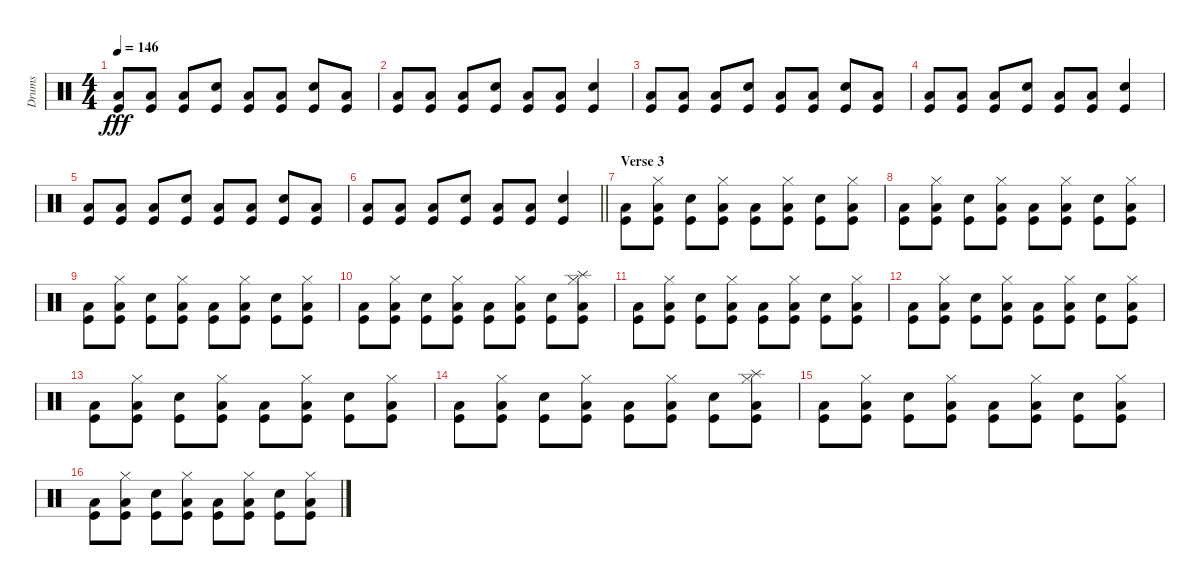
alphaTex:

\track ("Drums" "Drums") {instrument percussion}
\staff {score}
\articulation defaults
\ts (4 4)
\tempo 146
\clef neutral
\ks c
("Low Floor Tom (hit)" "Kick (hit)").8{dy fff} ("Low Floor Tom (hit)" "Kick (hit)").8 ("Low Floor Tom (hit)" "Kick (hit)").8 ("Electric Snare (hit)" "Kick (hit)").8 ("Low Floor Tom (hit)" "Kick (hit)").8 ("Low Floor Tom (hit)" "Kick (hit)").8 ("Electric Snare (hit)" "Kick (hit)").8 ("Low Floor Tom (hit)" "Kick (hit)").8 |
("Low Floor Tom (hit)" "Kick (hit)").8 ("Low Floor Tom (hit)" "Kick (hit)").8 ("Low Floor Tom (hit)" "Kick (hit)").8 ("Electric Snare (hit)" "Kick (hit)").8 ("Low Floor Tom (hit)" "Kick (hit)").8 ("Low Floor Tom (hit)" "Kick (hit)").8 ("Electric Snare (hit)" "Kick (hit)").4 |
("Low Floor Tom (hit)" "Kick (hit)").8 ("Low Floor Tom (hit)" "Kick (hit)").8 ("Low Floor Tom (hit)" "Kick (hit)").8 ("Electric Snare (hit)" "Kick (hit)").8 ("Low Floor Tom (hit)" "Kick (hit)").8 ("Low Floor Tom (hit)" "Kick (hit)").8 ("Electric Snare (hit)" "Kick (hit)").8 ("Low Floor Tom (hit)" "Kick (hit)").8 |
("Low Floor Tom (hit)" "Kick (hit)").8 ("Low Floor Tom (hit)" "Kick (hit)").8 ("Low Floor Tom (hit)" "Kick (hit)").8 ("Electric Snare (hit)" "Kick (hit)").8 ("Low Floor Tom (hit)" "Kick (hit)").8 ("Low Floor Tom (hit)" "Kick (hit)").8 ("Electric Snare (hit)" "Kick (hit)").4 |
("Low Floor Tom (hit)" "Kick (hit)").8 ("Low Floor Tom (hit)" "Kick (hit)").8 ("Low Floor Tom (hit)" "Kick (hit)").8 ("Electric Snare (hit)" "Kick (hit)").8 ("Low Floor Tom (hit)" "Kick (hit)").8 ("Low Floor Tom (hit)" "Kick (hit)").8 ("Electric Snare (hit)" "Kick (hit)").8 ("Low Floor Tom (hit)" "Kick (hit)").8 |
\barLineRight lightlight
("Low Floor Tom (hit)" "Kick (hit)").8 ("Low Floor Tom (hit)" "Kick (hit)").8 ("Low Floor Tom (hit)" "Kick (hit)").8 ("Electric Snare (hit)" "Kick (hit)").8 ("Low Floor Tom (hit)" "Kick (hit)").8 ("Low Floor Tom (hit)" "Kick (hit)").8 ("Electric Snare (hit)" "Kick (hit)").4 |
\section ("" "Verse 3")
("Low Floor Tom (hit)" "Kick (hit)").8 ("Hi-Hat (closed)" "Low Floor Tom (hit)" "Kick (hit)").8 ("Electric Snare (hit)" "Kick (hit)").8 ("Hi-Hat (closed)" "Low Floor Tom (hit)" "Kick (hit)").8 ("Low Floor Tom (hit)" "Kick (hit)").8 ("Hi-Hat (closed)" "Low Floor Tom (hit)" "Kick (hit)").8 ("Electric Snare (hit)" "Kick (hit)").8 ("Hi-Hat (closed)" "Low Floor Tom (hit)" "Kick (hit)").8 |
("Low Floor Tom (hit)" "Kick (hit)").8 ("Hi-Hat (closed)" "Low Floor Tom (hit)" "Kick (hit)").8 ("Electric Snare (hit)" "Kick (hit)").8 ("Hi-Hat (closed)" "Low Floor Tom (hit)" "Kick (hit)").8 ("Low Floor Tom (hit)" "Kick (hit)").8 ("Hi-Hat (closed)" "Low Floor Tom (hit)" "Kick (hit)").8 ("Electric Snare (hit)" "Kick (hit)").8 ("Hi-Hat (closed)" "Low Floor Tom (hit)" "Kick (hit)").8 |
("Low Floor Tom (hit)" "Kick (hit)").8 ("Hi-Hat (closed)" "Low Floor Tom (hit)" "Kick (hit)").8 ("Electric Snare (hit)" "Kick (hit)").8 ("Hi-Hat (closed)" "Low Floor Tom (hit)" "Kick (hit)").8 ("Low Floor Tom (hit)" "Kick (hit)").8 ("Hi-Hat (closed)" "Low Floor Tom (hit)" "Kick (hit)").8 ("Electric Snare (hit)" "Kick (hit)").8 ("Hi-Hat (closed)" "Low Floor Tom (hit)" "Kick (hit)").8 |
("Low Floor Tom (hit)" "Kick (hit)").8 ("Hi-Hat (closed)" "Low Floor Tom (hit)" "Kick (hit)").8 ("Electric Snare (hit)" "Kick (hit)").8 ("Hi-Hat (closed)" "Low Floor Tom (hit)" "Kick (hit)").8 ("Low Floor Tom (hit)" "Kick (hit)").8 ("Hi-Hat (closed)" "Low Floor Tom (hit)" "Kick (hit)").8 ("Electric Snare (hit)" "Kick (hit)").8 ("Splash (hit)" "Hi-Hat (closed)" "Low Floor Tom (hit)" "Kick (hit)").8 |
("Low Floor Tom (hit)" "Kick (hit)").8 ("Hi-Hat (closed)" "Low Floor Tom (hit)" "Kick (hit)").8 ("Electric Snare (hit)" "Kick (hit)").8 ("Hi-Hat (closed)" "Low Floor Tom (hit)" "Kick (hit)").8 ("Low Floor Tom (hit)" "Kick (hit)").8 ("Hi-Hat (closed)" "Low Floor Tom (hit)" "Kick (hit)").8 ("Electric Snare (hit)" "Kick (hit)").8 ("Hi-Hat (closed)" "Low Floor Tom (hit)" "Kick (hit)").8 |
("Low Floor Tom (hit)" "Kick (hit)").8 ("Hi-Hat (closed)" "Low Floor Tom (hit)" "Kick (hit)").8 ("Electric Snare (hit)" "Kick (hit)").8 ("Hi-Hat (closed)" "Low Floor Tom (hit)" "Kick (hit)").8 ("Low Floor Tom (hit)" "Kick (hit)").8 ("Hi-Hat (closed)" "Low Floor Tom (hit)" "Kick (hit)").8 ("Electric Snare (hit)" "Kick (hit)").8 ("Hi-Hat (closed)" "Low Floor Tom (hit)" "Kick (hit)").8 |
("Low Floor Tom (hit)" "Kick (hit)").8 ("Hi-Hat (closed)" "Low Floor Tom (hit)" "Kick (hit)").8 ("Electric Snare (hit)" "Kick (hit)").8 ("Hi-Hat (closed)" "Low Floor Tom (hit)" "Kick (hit)").8 ("Low Floor Tom (hit)" "Kick (hit)").8 ("Hi-Hat (closed)" "Low Floor Tom (hit)" "Kick (hit)").8 ("Electric Snare (hit)" "Kick (hit)").8 ("Hi-Hat (closed)" "Low Floor Tom (hit)" "Kick (hit)").8 |
("Low Floor Tom (hit)" "Kick (hit)").8 ("Hi-Hat (closed)" "Low Floor Tom (hit)" "Kick (hit)").8 ("Electric Snare (hit)" "Kick (hit)").8 ("Hi-Hat (closed)" "Low Floor Tom (hit)" "Kick (hit)").8 ("Low Floor Tom (hit)" "Kick (hit)").8 ("Hi-Hat (closed)" "Low Floor Tom (hit)" "Kick (hit)").8 ("Electric Snare (hit)" "Kick (hit)").8 ("Splash (hit)" "Hi-Hat (closed)" "Low Floor Tom (hit)" "Kick (hit)").8 |
("Low Floor Tom (hit)" "Kick (hit)").8 ("Hi-Hat (closed)" "Low Floor Tom (hit)" "Kick (hit)").8 ("Electric Snare (hit)" "Kick (hit)").8 ("Hi-Hat (closed)" "Low Floor Tom (hit)" "Kick (hit)").8 ("Low Floor Tom (hit)" "Kick (hit)").8 ("Hi-Hat (closed)" "Low Floor Tom (hit)" "Kick (hit)").8 ("Electric Snare (hit)" "Kick (hit)").8 ("Hi-Hat (closed)" "Low Floor Tom (hit)" "Kick (hit)").8 |
("Low Floor Tom (hit)" "Kick (hit)").8 ("Hi-Hat (closed)" "Low Floor Tom (hit)" "Kick (hit)").8 ("Electric Snare (hit)" "Kick (hit)").8 ("Hi-Hat (closed)" "Low Floor Tom (hit)" "Kick (hit)").8 ("Low Floor Tom (hit)" "Kick (hit)").8 ("Hi-Hat (closed)" "Low Floor Tom (hit)" "Kick (hit)").8 ("Electric Snare (hit)" "Kick (hit)").8 ("Hi-Hat (closed)" "Low Floor Tom (hit)" "Kick (hit)").8
